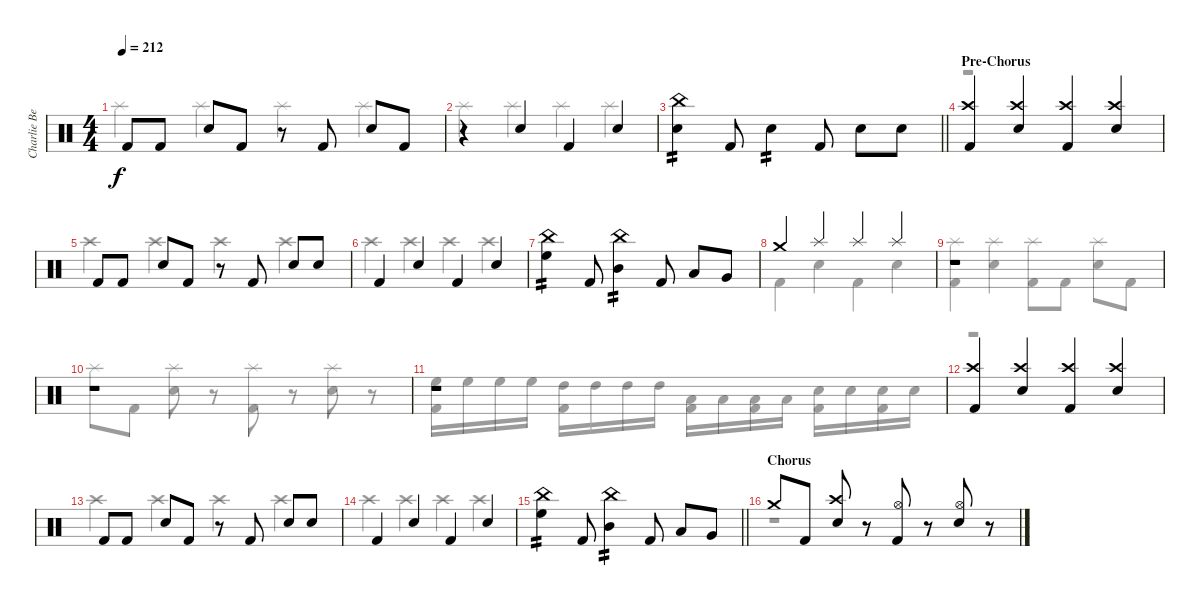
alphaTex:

\track ("Charlie Benante" "Charlie Be") {instrument percussion}
\staff {score}
\articulation defaults
\voice
\ts (4 4)
\tempo 212
\clef neutral
\ks c "Kick (hit) 2".8{dy f} "Kick (hit) 2".8 "Electric Snare (hit)".8 "Kick (hit) 2".8
r.8 "Kick (hit) 2".8 "Electric Snare (hit)".8 "Kick (hit) 2".8 |
r.4 "Electric Snare (hit)".4 "Kick (hit) 2".4 "Electric Snare (hit)".4 |
\barLineRight lightlight
("China (hit)" "Electric Snare (hit)").4{tp 2} "Kick (hit) 2".8 "Electric Snare (hit)".4{tp 2} "Kick (hit) 2".8 "Electric Snare (hit)".8 "Electric Snare (hit)".8 |
\section ("" "Pre-Chorus")
("Crash high (hit)" "Kick (hit) 2").4 ("Crash high (hit)" "Electric Snare (hit)").4 ("Crash high (hit)" "Kick (hit) 2").4 ("Crash high (hit)" "Electric Snare (hit)").4 |
"Kick (hit) 2".8 "Kick (hit) 2".8 "Electric Snare (hit)".8 "Kick (hit) 2".8 r.8 "Kick (hit) 2".8 "Electric Snare (hit)".8 "Electric Snare (hit)".8 |
"Kick (hit) 2".4 "Electric Snare (hit)".4 "Kick (hit) 2".4 "Electric Snare (hit)".4 |
("China (hit)" "High Floor Tom (hit)").4{tp 2} "Kick (hit) 2".8 ("China (hit)" "Mid Tom (hit)").4{tp 2} "Kick (hit) 2".8 "Low Tom (hit)".8 "Very Low Tom (hit)".8 |
"Crash medium (hit)".4 "Splash (hit)".4 "Splash (hit)".4 "Splash (hit)".4 |
r.1 |
r.1 |
r.1 |
("Crash high (hit)" "Kick (hit) 2").4 ("Crash high (hit)" "Electric Snare (hit)").4 ("Crash high (hit)" "Kick (hit) 2").4 ("Crash high (hit)" "Electric Snare (hit)").4 |
"Kick (hit) 2".8 "Kick (hit) 2".8 "Electric Snare (hit)".8 "Kick (hit) 2".8 r.8 "Kick (hit) 2".8 "Electric Snare (hit)".8 "Electric Snare (hit)".8 |
"Kick (hit) 2".4 "Electric Snare (hit)".4 "Kick (hit) 2".4 "Electric Snare (hit)".4 |
\barLineRight lightlight
("China (hit)" "High Floor Tom (hit)").4{tp 2} "Kick (hit) 2".8 ("China (hit)" "Mid Tom (hit)").4{tp 2} "Kick (hit) 2".8 "Low Tom (hit)".8 "Very Low Tom (hit)".8 |
\section ("" "Chorus")
"Crash medium (hit)".8 "Kick (hit) 2".8 ("Crash high (hit)" "Electric Snare (hit)").8 r.8 ("Hi-Hat (open)" "Kick (hit) 2").8 r.8 ("Hi-Hat (open)" "Electric Snare (hit)").8 r.8
\voice
\clef neutral
\ottava regular
\simile none
\ks c "Splash (hit)".4{dy f} "Splash (hit)".4 "Splash (hit)".4 "Splash (hit)".4
|
"Splash (hit)".4 "Splash (hit)".4 "Splash (hit)".4 "Splash (hit)".4 |
\barLineRight lightlight
|
r.1 |
"Crash high (hit)".4 "Crash high (hit)".4 "Crash high (hit)".4 "Crash high (hit)".4 |
"Crash high (hit)".4 "Crash high (hit)".4 "Crash high (hit)".4 "Crash high (hit)".4 |
|
"Kick (hit) 2".4 "Electric Snare (hit)".4 "Kick (hit) 2".4 "Electric Snare (hit)".4 |
("Splash (hit)" "Kick (hit) 2").4 ("Splash (hit)" "Electric Snare (hit)").4 ("Splash (hit)" "Kick (hit) 2").8 "Kick (hit) 2".8 ("Splash (hit)" "Electric Snare (hit)").8 "Kick (hit) 2".8 |
"Splash (hit)".8 "Kick (hit) 2".8 ("Splash (hit)" "Electric Snare (hit)").8 r.8 ("Splash (hit)" "Kick (hit) 2").8 r.8 ("Splash (hit)" "Electric Snare (hit)").8 r.8 |
("High Floor Tom (hit)" "Kick (hit) 2").16 "High Floor Tom (hit)".16 "High Floor Tom (hit)".16 "High Floor Tom (hit)".16 ("High Tom (hit)" "Kick (hit) 2").16 "High Tom (hit)".16 "High Tom (hit)".16 "High Tom (hit)".16 ("Low Tom (hit)" "Kick (hit) 2").16 "Low Tom (hit)".16 ("Low Tom (hit)" "Kick (hit) 2").16 "Low Tom (hit)".16 ("Electric Snare (hit)" "Kick (hit) 2").16 "Electric Snare (hit)".16 ("Electric Snare (hit)" "Kick (hit) 2").16 "Electric Snare (hit)".16 |
r.1 |
"Crash high (hit)".4 "Crash high (hit)".4 "Crash high (hit)".4 "Crash high (hit)".4 |
"Crash high (hit)".4 "Crash high (hit)".4 "Crash high (hit)".4 "Crash high (hit)".4 |
\barLineRight lightlight
|
r.1
